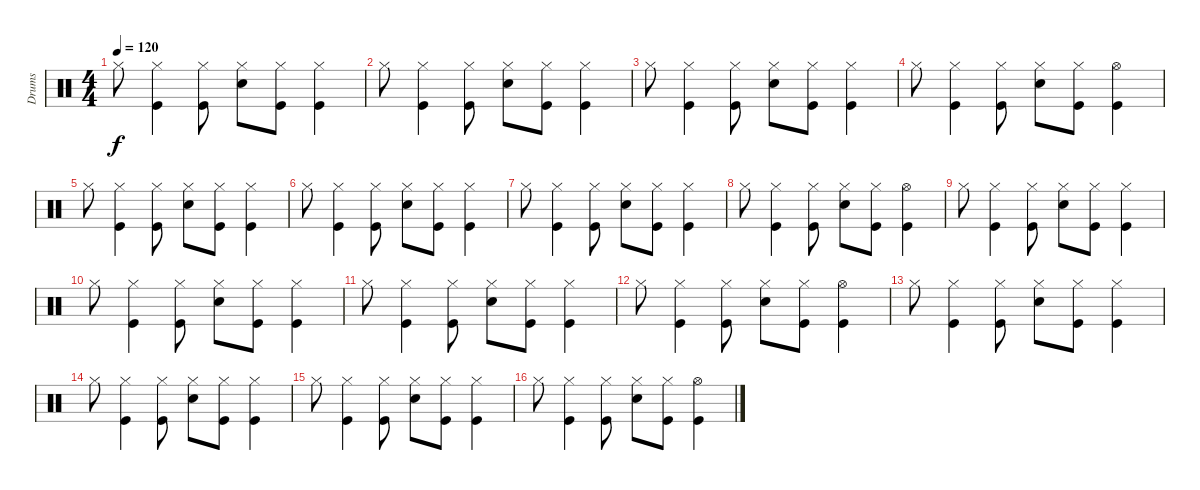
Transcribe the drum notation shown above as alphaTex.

\track ("Drums" "Drums") {instrument percussion}
\staff {score}
\articulation defaults
\ts (4 4)
\tempo 120
\clef neutral
\ks c "Hi-Hat (closed)".8{dy f}
("Hi-Hat (closed)" "Kick (hit)").4 ("Hi-Hat (closed)" "Kick (hit)").8 ("Snare (hit) 2" "Hi-Hat (closed)").8 ("Hi-Hat (closed)" "Kick (hit)").8 ("Hi-Hat (closed)" "Kick (hit)").4 |
"Hi-Hat (closed)".8 ("Hi-Hat (closed)" "Kick (hit)").4 ("Hi-Hat (closed)" "Kick (hit)").8 ("Snare (hit) 2" "Hi-Hat (closed)").8 ("Hi-Hat (closed)" "Kick (hit)").8 ("Hi-Hat (closed)" "Kick (hit)").4 |
"Hi-Hat (closed)".8 ("Hi-Hat (closed)" "Kick (hit)").4 ("Hi-Hat (closed)" "Kick (hit)").8 ("Snare (hit) 2" "Hi-Hat (closed)").8 ("Hi-Hat (closed)" "Kick (hit)").8 ("Hi-Hat (closed)" "Kick (hit)").4 |
"Hi-Hat (closed)".8 ("Hi-Hat (closed)" "Kick (hit)").4 ("Hi-Hat (closed)" "Kick (hit)").8 ("Snare (hit) 2" "Hi-Hat (closed)").8 ("Hi-Hat (closed)" "Kick (hit)").8 ("Hi-Hat (open)" "Kick (hit)").4 |
"Hi-Hat (closed)".8 ("Hi-Hat (closed)" "Kick (hit)").4 ("Hi-Hat (closed)" "Kick (hit)").8 ("Snare (hit) 2" "Hi-Hat (closed)").8 ("Hi-Hat (closed)" "Kick (hit)").8 ("Hi-Hat (closed)" "Kick (hit)").4 |
"Hi-Hat (closed)".8 ("Hi-Hat (closed)" "Kick (hit)").4 ("Hi-Hat (closed)" "Kick (hit)").8 ("Snare (hit) 2" "Hi-Hat (closed)").8 ("Hi-Hat (closed)" "Kick (hit)").8 ("Hi-Hat (closed)" "Kick (hit)").4 |
"Hi-Hat (closed)".8 ("Hi-Hat (closed)" "Kick (hit)").4 ("Hi-Hat (closed)" "Kick (hit)").8 ("Snare (hit) 2" "Hi-Hat (closed)").8 ("Hi-Hat (closed)" "Kick (hit)").8 ("Hi-Hat (closed)" "Kick (hit)").4 |
"Hi-Hat (closed)".8 ("Hi-Hat (closed)" "Kick (hit)").4 ("Hi-Hat (closed)" "Kick (hit)").8 ("Snare (hit) 2" "Hi-Hat (closed)").8 ("Hi-Hat (closed)" "Kick (hit)").8 ("Hi-Hat (open)" "Kick (hit)").4 |
"Hi-Hat (closed)".8 ("Hi-Hat (closed)" "Kick (hit)").4 ("Hi-Hat (closed)" "Kick (hit)").8 ("Snare (hit) 2" "Hi-Hat (closed)").8 ("Hi-Hat (closed)" "Kick (hit)").8 ("Hi-Hat (closed)" "Kick (hit)").4 |
"Hi-Hat (closed)".8 ("Hi-Hat (closed)" "Kick (hit)").4 ("Hi-Hat (closed)" "Kick (hit)").8 ("Snare (hit) 2" "Hi-Hat (closed)").8 ("Hi-Hat (closed)" "Kick (hit)").8 ("Hi-Hat (closed)" "Kick (hit)").4 |
"Hi-Hat (closed)".8 ("Hi-Hat (closed)" "Kick (hit)").4 ("Hi-Hat (closed)" "Kick (hit)").8 ("Snare (hit) 2" "Hi-Hat (closed)").8 ("Hi-Hat (closed)" "Kick (hit)").8 ("Hi-Hat (closed)" "Kick (hit)").4 |
"Hi-Hat (closed)".8 ("Hi-Hat (closed)" "Kick (hit)").4 ("Hi-Hat (closed)" "Kick (hit)").8 ("Snare (hit) 2" "Hi-Hat (closed)").8 ("Hi-Hat (closed)" "Kick (hit)").8 ("Hi-Hat (open)" "Kick (hit)").4 |
"Hi-Hat (closed)".8 ("Hi-Hat (closed)" "Kick (hit)").4 ("Hi-Hat (closed)" "Kick (hit)").8 ("Snare (hit) 2" "Hi-Hat (closed)").8 ("Hi-Hat (closed)" "Kick (hit)").8 ("Hi-Hat (closed)" "Kick (hit)").4 |
"Hi-Hat (closed)".8 ("Hi-Hat (closed)" "Kick (hit)").4 ("Hi-Hat (closed)" "Kick (hit)").8 ("Snare (hit) 2" "Hi-Hat (closed)").8 ("Hi-Hat (closed)" "Kick (hit)").8 ("Hi-Hat (closed)" "Kick (hit)").4 |
"Hi-Hat (closed)".8 ("Hi-Hat (closed)" "Kick (hit)").4 ("Hi-Hat (closed)" "Kick (hit)").8 ("Snare (hit) 2" "Hi-Hat (closed)").8 ("Hi-Hat (closed)" "Kick (hit)").8 ("Hi-Hat (closed)" "Kick (hit)").4 |
"Hi-Hat (closed)".8 ("Hi-Hat (closed)" "Kick (hit)").4 ("Hi-Hat (closed)" "Kick (hit)").8 ("Snare (hit) 2" "Hi-Hat (closed)").8 ("Hi-Hat (closed)" "Kick (hit)").8 ("Hi-Hat (open)" "Kick (hit)").4
